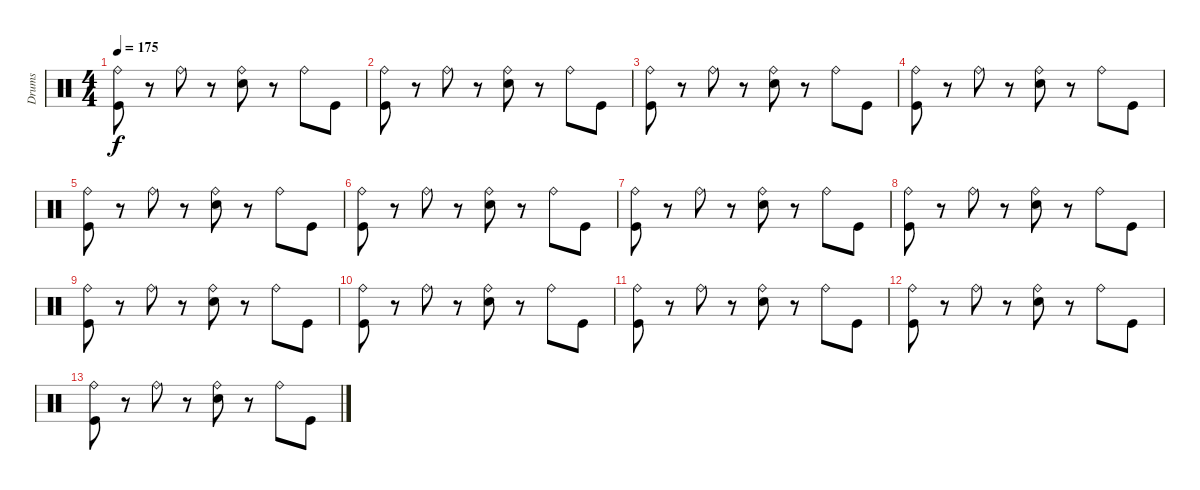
\track ("Drums" "Drums") {instrument percussion}
\staff {score}
\articulation defaults
\ts (4 4)
\tempo 175
\clef neutral
\ks c
("Ride (bell)" "Kick (hit)").8{dy f} r.8 "Ride (bell)".8 r.8 ("Ride (bell)" "Electric Snare (hit)").8 r.8 "Ride (bell)".8 "Kick (hit)".8 |
("Ride (bell)" "Kick (hit)").8 r.8 "Ride (bell)".8 r.8 ("Ride (bell)" "Electric Snare (hit)").8 r.8 "Ride (bell)".8 "Kick (hit)".8 |
("Ride (bell)" "Kick (hit)").8 r.8 "Ride (bell)".8 r.8 ("Ride (bell)" "Electric Snare (hit)").8 r.8 "Ride (bell)".8 "Kick (hit)".8 |
("Ride (bell)" "Kick (hit)").8 r.8 "Ride (bell)".8 r.8 ("Ride (bell)" "Electric Snare (hit)").8 r.8 "Ride (bell)".8 "Kick (hit)".8 |
("Ride (bell)" "Kick (hit)").8 r.8 "Ride (bell)".8 r.8 ("Ride (bell)" "Electric Snare (hit)").8 r.8 "Ride (bell)".8 "Kick (hit)".8 |
("Ride (bell)" "Kick (hit)").8 r.8 "Ride (bell)".8 r.8 ("Ride (bell)" "Electric Snare (hit)").8 r.8 "Ride (bell)".8 "Kick (hit)".8 |
("Ride (bell)" "Kick (hit)").8 r.8 "Ride (bell)".8 r.8 ("Ride (bell)" "Electric Snare (hit)").8 r.8 "Ride (bell)".8 "Kick (hit)".8 |
("Ride (bell)" "Kick (hit)").8 r.8 "Ride (bell)".8 r.8 ("Ride (bell)" "Electric Snare (hit)").8 r.8 "Ride (bell)".8 "Kick (hit)".8 |
("Ride (bell)" "Kick (hit)").8 r.8 "Ride (bell)".8 r.8 ("Ride (bell)" "Electric Snare (hit)").8 r.8 "Ride (bell)".8 "Kick (hit)".8 |
("Ride (bell)" "Kick (hit)").8 r.8 "Ride (bell)".8 r.8 ("Ride (bell)" "Electric Snare (hit)").8 r.8 "Ride (bell)".8 "Kick (hit)".8 |
("Ride (bell)" "Kick (hit)").8 r.8 "Ride (bell)".8 r.8 ("Ride (bell)" "Electric Snare (hit)").8 r.8 "Ride (bell)".8 "Kick (hit)".8 |
("Ride (bell)" "Kick (hit)").8 r.8 "Ride (bell)".8 r.8 ("Ride (bell)" "Electric Snare (hit)").8 r.8 "Ride (bell)".8 "Kick (hit)".8 |
("Ride (bell)" "Kick (hit)").8 r.8 "Ride (bell)".8 r.8 ("Ride (bell)" "Electric Snare (hit)").8 r.8 "Ride (bell)".8 "Kick (hit)".8
